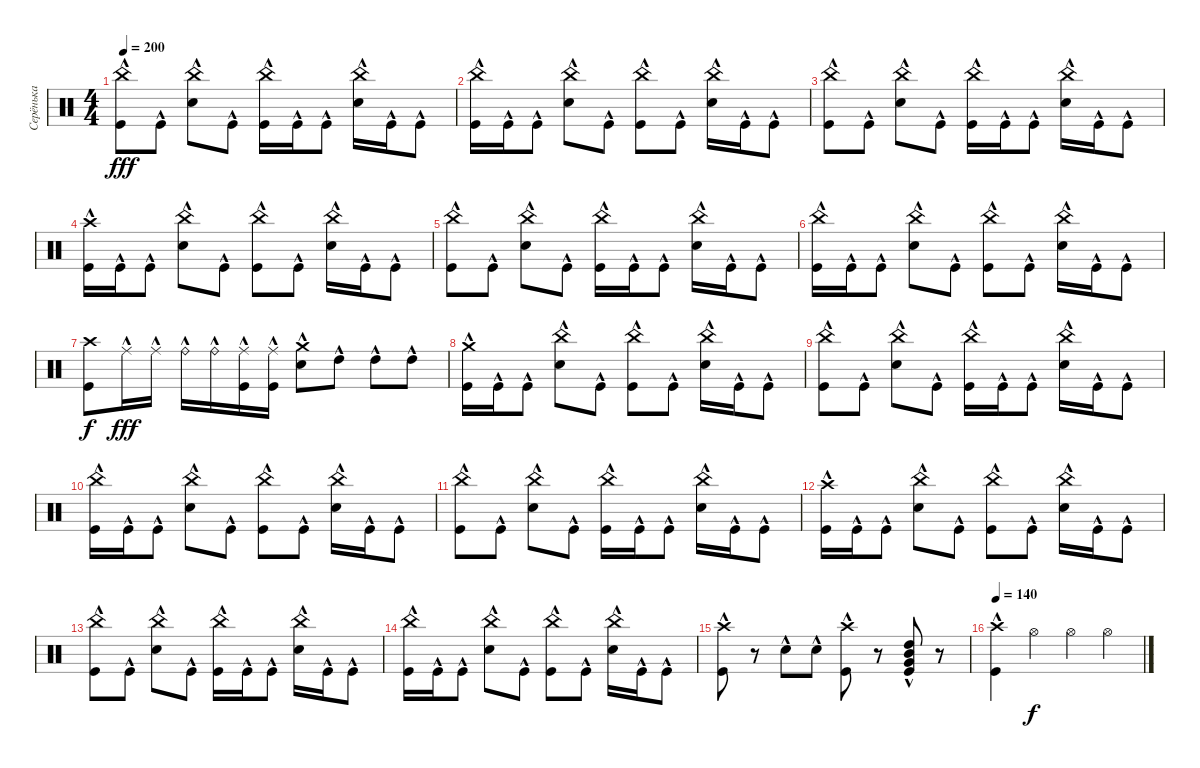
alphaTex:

\track ("Серёнька" "Серёнька") {instrument percussion}
\staff {score}
\articulation defaults
\ts (4 4)
\tempo 200
\clef neutral
\ks c
("China (hit)" "Kick (hit)"{hac}).8{dy fff} "Kick (hit)"{hac}.8 ("China (hit)" "Snare (hit) 2"{hac}).8 "Kick (hit)"{hac}.8 ("China (hit)" "Kick (hit)"{hac}).16 "Kick (hit)"{hac}.16 "Kick (hit)"{hac}.8 ("China (hit)" "Snare (hit) 2"{hac}).16 "Kick (hit)"{hac}.16 "Kick (hit)"{hac}.8 |
("China (hit)" "Kick (hit)"{hac}).16 "Kick (hit)"{hac}.16 "Kick (hit)"{hac}.8 ("China (hit)" "Snare (hit) 2"{hac}).8 "Kick (hit)"{hac}.8 ("China (hit)" "Kick (hit)"{hac}).8 "Kick (hit)"{hac}.8 ("China (hit)" "Snare (hit) 2"{hac}).16 "Kick (hit)"{hac}.16 "Kick (hit)"{hac}.8 |
("China (hit)" "Kick (hit)"{hac}).8 "Kick (hit)"{hac}.8 ("China (hit)" "Snare (hit) 2"{hac}).8 "Kick (hit)"{hac}.8 ("China (hit)" "Kick (hit)"{hac}).16 "Kick (hit)"{hac}.16 "Kick (hit)"{hac}.8 ("China (hit)" "Snare (hit) 2"{hac}).16 "Kick (hit)"{hac}.16 "Kick (hit)"{hac}.8 |
("Crash high (hit)"{hac} "Kick (hit)"{hac}).16 "Kick (hit)"{hac}.16 "Kick (hit)"{hac}.8 ("China (hit)" "Snare (hit) 2"{hac}).8 "Kick (hit)"{hac}.8 ("China (hit)" "Kick (hit)"{hac}).8 "Kick (hit)"{hac}.8 ("China (hit)" "Snare (hit) 2"{hac}).16 "Kick (hit)"{hac}.16 "Kick (hit)"{hac}.8 |
("China (hit)" "Kick (hit)"{hac}).8 "Kick (hit)"{hac}.8 ("China (hit)" "Snare (hit) 2"{hac}).8 "Kick (hit)"{hac}.8 ("China (hit)" "Kick (hit)"{hac}).16 "Kick (hit)"{hac}.16 "Kick (hit)"{hac}.8 ("China (hit)" "Snare (hit) 2"{hac}).16 "Kick (hit)"{hac}.16 "Kick (hit)"{hac}.8 |
("China (hit)" "Kick (hit)"{hac}).16 "Kick (hit)"{hac}.16 "Kick (hit)"{hac}.8 ("China (hit)" "Snare (hit) 2"{hac}).8 "Kick (hit)"{hac}.8 ("China (hit)" "Kick (hit)"{hac}).8 "Kick (hit)"{hac}.8 ("China (hit)" "Snare (hit) 2"{hac}).16 "Kick (hit)"{hac}.16 "Kick (hit)"{hac}.8 |
("Crash high (hit)" "Kick (hit)").8{dy f} "Ride (middle)"{hac}.16{dy fff} "Ride (middle)"{hac}.16 "Ride (bell)"{hac}.16 "Ride (bell)"{hac}.16 ("Ride (middle)"{hac} "Kick (hit)"{hac}).16 ("Ride (middle)"{hac} "Kick (hit)"{hac}).16 ("Crash medium (hit)"{hac} "Snare (hit) 2"{hac}).8 "High Tom (hit)"{hac}.8 "High Tom (hit)"{hac}.8 "High Tom (hit)"{hac}.8 |
("Crash medium (hit)"{hac} "Kick (hit)"{hac}).16 "Kick (hit)"{hac}.16 "Kick (hit)"{hac}.8 ("China (hit)" "Snare (hit) 2"{hac}).8 "Kick (hit)"{hac}.8 ("China (hit)" "Kick (hit)"{hac}).8 "Kick (hit)"{hac}.8 ("China (hit)" "Snare (hit) 2"{hac}).16 "Kick (hit)"{hac}.16 "Kick (hit)"{hac}.8 |
("China (hit)" "Kick (hit)"{hac}).8 "Kick (hit)"{hac}.8 ("China (hit)" "Snare (hit) 2"{hac}).8 "Kick (hit)"{hac}.8 ("China (hit)" "Kick (hit)"{hac}).16 "Kick (hit)"{hac}.16 "Kick (hit)"{hac}.8 ("China (hit)" "Snare (hit) 2"{hac}).16 "Kick (hit)"{hac}.16 "Kick (hit)"{hac}.8 |
("China (hit)" "Kick (hit)"{hac}).16 "Kick (hit)"{hac}.16 "Kick (hit)"{hac}.8 ("China (hit)" "Snare (hit) 2"{hac}).8 "Kick (hit)"{hac}.8 ("China (hit)" "Kick (hit)"{hac}).8 "Kick (hit)"{hac}.8 ("China (hit)" "Snare (hit) 2"{hac}).16 "Kick (hit)"{hac}.16 "Kick (hit)"{hac}.8 |
("China (hit)" "Kick (hit)"{hac}).8 "Kick (hit)"{hac}.8 ("China (hit)" "Snare (hit) 2"{hac}).8 "Kick (hit)"{hac}.8 ("China (hit)" "Kick (hit)"{hac}).16 "Kick (hit)"{hac}.16 "Kick (hit)"{hac}.8 ("China (hit)" "Snare (hit) 2"{hac}).16 "Kick (hit)"{hac}.16 "Kick (hit)"{hac}.8 |
("Crash high (hit)"{hac} "Kick (hit)"{hac}).16 "Kick (hit)"{hac}.16 "Kick (hit)"{hac}.8 ("China (hit)" "Snare (hit) 2"{hac}).8 "Kick (hit)"{hac}.8 ("China (hit)" "Kick (hit)"{hac}).8 "Kick (hit)"{hac}.8 ("China (hit)" "Snare (hit) 2"{hac}).16 "Kick (hit)"{hac}.16 "Kick (hit)"{hac}.8 |
("China (hit)" "Kick (hit)"{hac}).8 "Kick (hit)"{hac}.8 ("China (hit)" "Snare (hit) 2"{hac}).8 "Kick (hit)"{hac}.8 ("China (hit)" "Kick (hit)"{hac}).16 "Kick (hit)"{hac}.16 "Kick (hit)"{hac}.8 ("China (hit)" "Snare (hit) 2"{hac}).16 "Kick (hit)"{hac}.16 "Kick (hit)"{hac}.8 |
("China (hit)" "Kick (hit)"{hac}).16 "Kick (hit)"{hac}.16 "Kick (hit)"{hac}.8 ("China (hit)" "Snare (hit) 2"{hac}).8 "Kick (hit)"{hac}.8 ("China (hit)" "Kick (hit)"{hac}).8 "Kick (hit)"{hac}.8 ("China (hit)" "Snare (hit) 2"{hac}).16 "Kick (hit)"{hac}.16 "Kick (hit)"{hac}.8 |
("Crash high (hit)"{hac} "Kick (hit)"{hac}).8 r.8 "Snare (hit) 2"{hac}.8 "Snare (hit) 2"{hac}.8 ("Crash high (hit)"{hac} "Kick (hit)"{hac}).8 r.8 ("Kick (hit)"{hac} "High Tom (hit)"{hac} "Mid Tom (hit)"{hac} "Very Low Tom (hit)"{hac}).8 r.8 |
\tempo 140
("Crash high (hit)"{hac} "Kick (hit)"{hac}).4 "Hi-Hat (open)".4{dy f} "Hi-Hat (open)".4 "Hi-Hat (open)".4
